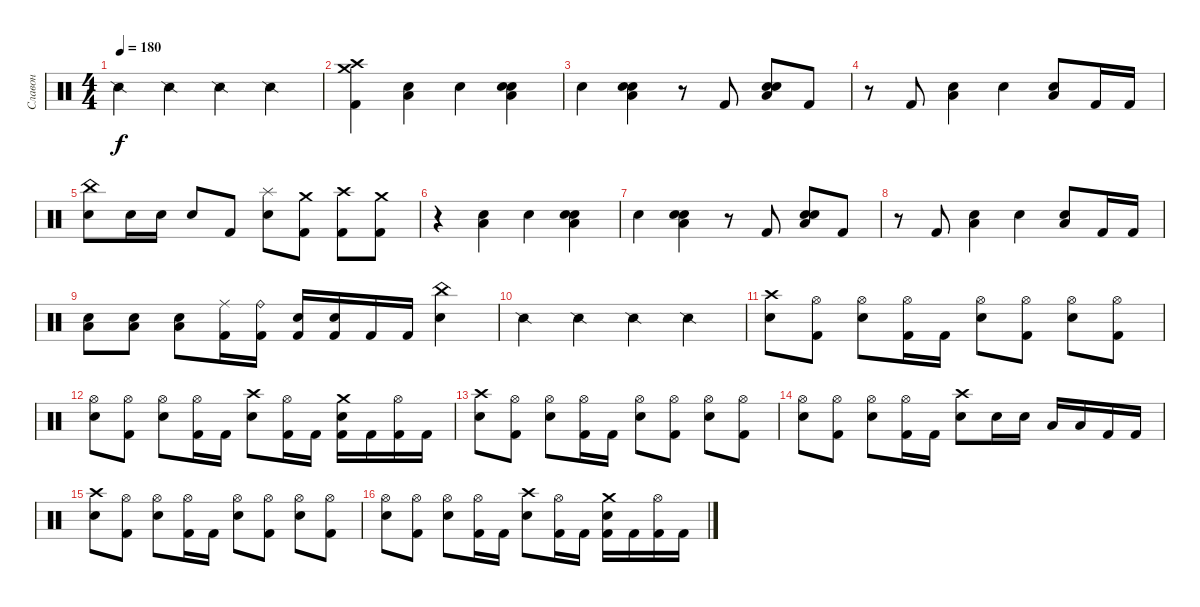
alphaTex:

\track ("Славон" "Славон") {instrument percussion}
\staff {score}
\articulation defaults
\ts (4 4)
\tempo 180
\clef neutral
\ks c "Snare (side stick) 2".4{dy f} "Snare (side stick) 2".4 "Snare (side stick) 2".4 "Snare (side stick) 2".4
|
("Crash high (hit)" "Crash medium (hit)" "Kick (hit) 2").4 ("Low Tom (hit)" "Electric Snare (hit)").4 "Snare (hit)".4 ("Low Tom (hit)" "Electric Snare (hit)" "Snare (hit)").4 |
"Snare (hit)".4 ("Low Tom (hit)" "Electric Snare (hit)" "Snare (hit)").4 r.8 "Kick (hit) 2".8 ("Low Tom (hit)" "Electric Snare (hit)" "Snare (hit)").8 "Kick (hit) 2".8 |
r.8 "Kick (hit) 2".8 ("Low Tom (hit)" "Electric Snare (hit)").4 "Snare (hit)".4 ("Low Tom (hit)" "Electric Snare (hit)").8 "Kick (hit) 2".16 "Kick (hit) 2".16 |
("China (hit)" "Electric Snare (hit)").8 "Electric Snare (hit)".16 "Electric Snare (hit)".16 "Electric Snare (hit)".8 "Kick (hit) 2".8 ("Splash (hit)" "Electric Snare (hit)").8 ("Crash medium (hit)" "Kick (hit) 2").8 ("Crash high (hit)" "Kick (hit) 2").8 ("Crash medium (hit)" "Kick (hit) 2").8 |
r.4 ("Low Tom (hit)" "Electric Snare (hit)").4 "Snare (hit)".4 ("Low Tom (hit)" "Electric Snare (hit)" "Snare (hit)").4 |
"Snare (hit)".4 ("Low Tom (hit)" "Electric Snare (hit)" "Snare (hit)").4 r.8 "Kick (hit) 2".8 ("Low Tom (hit)" "Electric Snare (hit)" "Snare (hit)").8 "Kick (hit) 2".8 |
r.8 "Kick (hit) 2".8 ("Low Tom (hit)" "Electric Snare (hit)").4 "Snare (hit)".4 ("Low Tom (hit)" "Electric Snare (hit)").8 "Kick (hit) 2".16 "Kick (hit) 2".16 |
("Low Tom (hit)" "Electric Snare (hit)").8 ("Low Tom (hit)" "Electric Snare (hit)").8 ("Low Tom (hit)" "Electric Snare (hit)").8 ("Ride (middle)" "Kick (hit) 2").16 ("Ride (bell)" "Kick (hit) 2").16 ("Electric Snare (hit)" "Kick (hit) 2").16 ("Electric Snare (hit)" "Kick (hit) 2").16 "Kick (hit) 2".16 "Kick (hit) 2".16 ("China (hit)" "Electric Snare (hit)").4 |
"Snare (side stick) 2".4 "Snare (side stick) 2".4 "Snare (side stick) 2".4 "Snare (side stick) 2".4 |
("Crash high (hit)" "Electric Snare (hit)").8 ("Hi-Hat (open)" "Kick (hit) 2").8 ("Hi-Hat (open)" "Electric Snare (hit)").8 ("Hi-Hat (open)" "Kick (hit) 2").16 "Kick (hit) 2".16 ("Hi-Hat (open)" "Electric Snare (hit)").8 ("Hi-Hat (open)" "Kick (hit) 2").8 ("Hi-Hat (open)" "Electric Snare (hit)").8 ("Hi-Hat (open)" "Kick (hit) 2").8 |
("Hi-Hat (open)" "Electric Snare (hit)").8 ("Hi-Hat (open)" "Kick (hit) 2").8 ("Hi-Hat (open)" "Electric Snare (hit)").8 ("Hi-Hat (open)" "Kick (hit) 2").16 "Kick (hit) 2".16 ("Crash high (hit)" "Electric Snare (hit)").8 ("Hi-Hat (open)" "Kick (hit) 2").16 "Kick (hit) 2".16 ("Crash medium (hit)" "Electric Snare (hit)" "Kick (hit) 2").16 "Kick (hit) 2".16 ("Hi-Hat (open)" "Kick (hit) 2").16 "Kick (hit) 2".16 |
("Crash high (hit)" "Electric Snare (hit)").8 ("Hi-Hat (open)" "Kick (hit) 2").8 ("Hi-Hat (open)" "Electric Snare (hit)").8 ("Hi-Hat (open)" "Kick (hit) 2").16 "Kick (hit) 2".16 ("Hi-Hat (open)" "Electric Snare (hit)").8 ("Hi-Hat (open)" "Kick (hit) 2").8 ("Hi-Hat (open)" "Electric Snare (hit)").8 ("Hi-Hat (open)" "Kick (hit) 2").8 |
("Hi-Hat (open)" "Electric Snare (hit)").8 ("Hi-Hat (open)" "Kick (hit) 2").8 ("Hi-Hat (open)" "Electric Snare (hit)").8 ("Hi-Hat (open)" "Kick (hit) 2").16 "Kick (hit) 2".16 ("Crash high (hit)" "Electric Snare (hit)").8 "Electric Snare (hit)".16 "Electric Snare (hit)".16 "Low Tom (hit)".16 "Low Tom (hit)".16 "Kick (hit) 2".16 "Kick (hit) 2".16 |
("Crash high (hit)" "Electric Snare (hit)").8 ("Hi-Hat (open)" "Kick (hit) 2").8 ("Hi-Hat (open)" "Electric Snare (hit)").8 ("Hi-Hat (open)" "Kick (hit) 2").16 "Kick (hit) 2".16 ("Hi-Hat (open)" "Electric Snare (hit)").8 ("Hi-Hat (open)" "Kick (hit) 2").8 ("Hi-Hat (open)" "Electric Snare (hit)").8 ("Hi-Hat (open)" "Kick (hit) 2").8 |
("Hi-Hat (open)" "Electric Snare (hit)").8 ("Hi-Hat (open)" "Kick (hit) 2").8 ("Hi-Hat (open)" "Electric Snare (hit)").8 ("Hi-Hat (open)" "Kick (hit) 2").16 "Kick (hit) 2".16 ("Crash high (hit)" "Electric Snare (hit)").8 ("Hi-Hat (open)" "Kick (hit) 2").16 "Kick (hit) 2".16 ("Crash medium (hit)" "Electric Snare (hit)" "Kick (hit) 2").16 "Kick (hit) 2".16 ("Hi-Hat (open)" "Kick (hit) 2").16 "Kick (hit) 2".16
